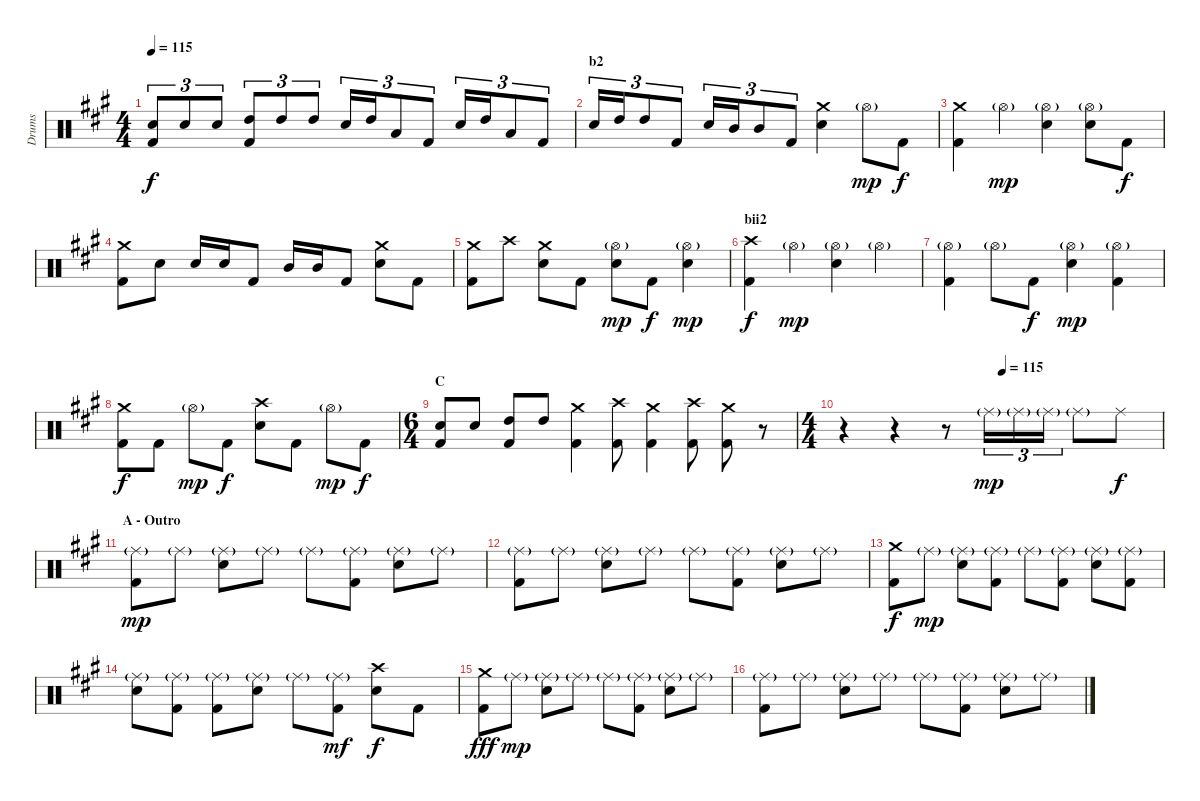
\track ("Drums" "Drums") {instrument percussion}
\staff {score}
\articulation defaults
\ts (4 4)
\tempo 115
\clef neutral
\ks a
("Snare (hit) 2" "Kick (hit) 2").8{tu (3 2) dy f} "Snare (hit) 2".8{tu (3 2)} "Snare (hit) 2".8{tu (3 2)} ("High Tom (hit)" "Kick (hit) 2").8{tu (3 2)} "High Tom (hit)".8{tu (3 2)} "High Tom (hit)".8{tu (3 2)} "Snare (hit) 2".16{tu (3 2)} "High Tom (hit)".16{tu (3 2)} "Low Tom (hit)".8{tu (3 2)} "Kick (hit) 2".8{tu (3 2)} "Snare (hit) 2".16{tu (3 2)} "High Tom (hit)".16{tu (3 2)} "Low Tom (hit)".8{tu (3 2)} "Kick (hit) 2".8{tu (3 2)} |
\section ("" "b2")
"Snare (hit) 2".16{tu (3 2)} "High Tom (hit)".16{tu (3 2)} "High Tom (hit)".8{tu (3 2)} "Kick (hit) 2".8{tu (3 2)} "Snare (hit) 2".16{tu (3 2)} "Mid Tom (hit)".16{tu (3 2)} "Mid Tom (hit)".8{tu (3 2)} "Kick (hit) 2".8{tu (3 2)} ("Crash medium (hit)" "Snare (hit) 2").4 "Hi-Hat (open)"{g}.8{dy mp} "Kick (hit) 2".8{dy f} |
("Crash medium (hit)" "Kick (hit) 2").4 "Hi-Hat (open)"{g}.4{dy mp} ("Hi-Hat (open)"{g} "Snare (hit) 2").4 ("Hi-Hat (open)"{g} "Snare (hit) 2").8 "Kick (hit) 2".8{dy f} |
("Crash medium (hit)" "Kick (hit) 2").8 "Snare (hit) 2".8 "Snare (hit) 2".16 "Snare (hit) 2".16 "Kick (hit) 2".8 "Mid Tom (hit)".16 "Mid Tom (hit)".16 "Kick (hit) 2".8 ("Crash medium (hit)" "Snare (hit) 2").8 "Kick (hit) 2".8 |
("Crash medium (hit)" "Kick (hit) 2").8 "Crash high (hit)".8 ("Crash medium (hit)" "Snare (hit) 2").8 "Kick (hit) 2".8 ("Hi-Hat (open)"{g} "Snare (hit) 2").8{dy mp} "Kick (hit) 2".8{dy f} ("Hi-Hat (open)"{g} "Snare (hit) 2").4{dy mp} |
\section ("" "bii2")
("Crash high (hit)" "Kick (hit) 2").4{dy f} "Hi-Hat (open)"{g}.4{dy mp} ("Hi-Hat (open)"{g} "Snare (hit) 2").4 "Hi-Hat (open)"{g}.4 |
("Hi-Hat (open)"{g} "Kick (hit) 2").4 "Hi-Hat (open)"{g}.8 "Kick (hit) 2".8{dy f} ("Hi-Hat (open)"{g} "Snare (hit) 2").4{dy mp} ("Hi-Hat (open)"{g} "Kick (hit) 2").4 |
("Crash medium (hit)" "Kick (hit) 2").8{dy f} "Kick (hit) 2".8 "Hi-Hat (open)"{g}.8{dy mp} "Kick (hit) 2".8{dy f} ("Crash high (hit)" "Snare (hit) 2").8 "Kick (hit) 2".8 "Hi-Hat (open)"{g}.8{dy mp} "Kick (hit) 2".8{dy f} |
\ts (6 4)
\section ("" "C")
("Snare (hit) 2" "Kick (hit) 2").8 "Snare (hit) 2".8 ("High Tom (hit)" "Kick (hit) 2").8 "High Tom (hit)".8 ("Crash medium (hit)" "Kick (hit) 2").4 ("Crash high (hit)" "Kick (hit) 2").8 ("Crash medium (hit)" "Kick (hit) 2").4 ("Crash high (hit)" "Kick (hit) 2").8 ("Crash medium (hit)" "Kick (hit) 2").8 r.8 |
\ts (4 4)
\tempo (115 0.5)
r.4 r.4 r.8 "Ride (middle)"{g}.16{tu (3 2) dy mp} "Ride (middle)"{g}.16{tu (3 2)} "Ride (middle)"{g}.16{tu (3 2)} "Ride (middle)"{g}.8 "Ride (middle)".8{dy f} |
\section ("" "A - Outro")
("Ride (middle)"{g} "Kick (hit) 2").8{dy mp} "Ride (middle)"{g}.8 ("Ride (middle)"{g} "Snare (hit) 2").8 "Ride (middle)"{g}.8 "Ride (middle)"{g}.8 ("Ride (middle)"{g} "Kick (hit) 2").8 ("Ride (middle)"{g} "Snare (hit) 2").8 "Ride (middle)"{g}.8 |
("Ride (middle)"{g} "Kick (hit) 2").8 "Ride (middle)"{g}.8 ("Ride (middle)"{g} "Snare (hit) 2").8 "Ride (middle)"{g}.8 "Ride (middle)"{g}.8 ("Ride (middle)"{g} "Kick (hit) 2").8 ("Ride (middle)"{g} "Snare (hit) 2").8 "Ride (middle)"{g}.8 |
("Crash medium (hit)" "Kick (hit) 2").8{dy f} "Ride (middle)"{g}.8{dy mp} ("Ride (middle)"{g} "Snare (hit) 2").8 ("Ride (middle)"{g} "Kick (hit) 2").8 "Ride (middle)"{g}.8 ("Ride (middle)"{g} "Kick (hit) 2").8 ("Ride (middle)"{g} "Snare (hit) 2").8 ("Ride (middle)"{g} "Kick (hit) 2").8 |
("Ride (middle)"{g} "Snare (hit) 2").8 ("Ride (middle)"{g} "Kick (hit) 2").8 ("Ride (middle)"{g} "Kick (hit) 2").8 ("Ride (middle)"{g} "Snare (hit) 2").8 "Ride (middle)"{g}.8 ("Ride (middle)"{g} "Kick (hit) 2").8{dy mf} ("Crash high (hit)" "Snare (hit) 2").8{dy f} "Kick (hit) 2".8 |
("Crash medium (hit)" "Kick (hit) 2").8{dy fff} "Ride (middle)"{g}.8{dy mp} ("Ride (middle)"{g} "Snare (hit) 2").8 "Ride (middle)"{g}.8 "Ride (middle)"{g}.8 ("Ride (middle)"{g} "Kick (hit) 2").8 ("Ride (middle)"{g} "Snare (hit) 2").8 "Ride (middle)"{g}.8 |
("Ride (middle)"{g} "Kick (hit) 2").8 "Ride (middle)"{g}.8 ("Ride (middle)"{g} "Snare (hit) 2").8 "Ride (middle)"{g}.8 "Ride (middle)"{g}.8 ("Ride (middle)"{g} "Kick (hit) 2").8 ("Ride (middle)"{g} "Snare (hit) 2").8 "Ride (middle)"{g}.8
